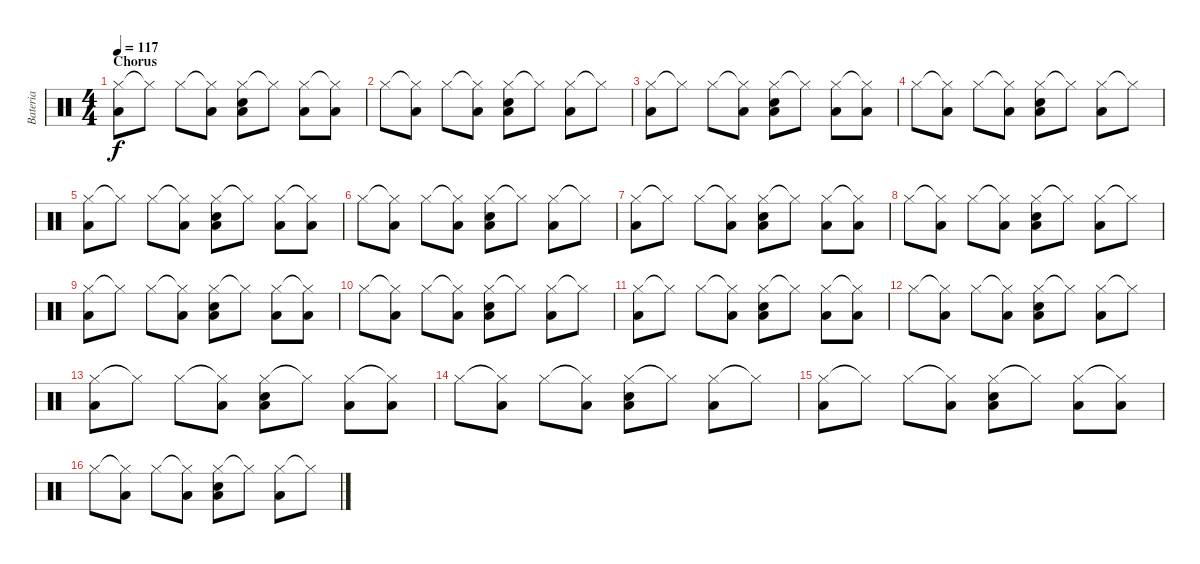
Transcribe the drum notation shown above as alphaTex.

\track ("Bateria" "Bateria") {instrument percussion}
\staff {score}
\articulation defaults
\ts (4 4)
\section ("" "Chorus")
\tempo 117
\clef neutral
\ks c
("Hi-Hat (closed)" "Low Tom (hit)").8{dy f} "Hi-Hat (closed)"{t}.8 "Hi-Hat (closed)".8 ("Hi-Hat (closed)"{t} "Low Tom (hit)").8 ("Hi-Hat (closed)" "Snare (hit) 2" "Low Tom (hit)").8 "Hi-Hat (closed)"{t}.8 ("Hi-Hat (closed)" "Low Tom (hit)").8 ("Hi-Hat (closed)"{t} "Low Tom (hit)").8 |
"Hi-Hat (closed)".8 ("Hi-Hat (closed)"{t} "Low Tom (hit)").8 "Hi-Hat (closed)".8 ("Hi-Hat (closed)"{t} "Low Tom (hit)").8 ("Hi-Hat (closed)" "Snare (hit) 2" "Low Tom (hit)").8 "Hi-Hat (closed)"{t}.8 ("Hi-Hat (closed)" "Low Tom (hit)").8 "Hi-Hat (closed)"{t}.8 |
("Hi-Hat (closed)" "Low Tom (hit)").8 "Hi-Hat (closed)"{t}.8 "Hi-Hat (closed)".8 ("Hi-Hat (closed)"{t} "Low Tom (hit)").8 ("Hi-Hat (closed)" "Snare (hit) 2" "Low Tom (hit)").8 "Hi-Hat (closed)"{t}.8 ("Hi-Hat (closed)" "Low Tom (hit)").8 ("Hi-Hat (closed)"{t} "Low Tom (hit)").8 |
"Hi-Hat (closed)".8 ("Hi-Hat (closed)"{t} "Low Tom (hit)").8 "Hi-Hat (closed)".8 ("Hi-Hat (closed)"{t} "Low Tom (hit)").8 ("Hi-Hat (closed)" "Snare (hit) 2" "Low Tom (hit)").8 "Hi-Hat (closed)"{t}.8 ("Hi-Hat (closed)" "Low Tom (hit)").8 "Hi-Hat (closed)"{t}.8 |
("Hi-Hat (closed)" "Low Tom (hit)").8 "Hi-Hat (closed)"{t}.8 "Hi-Hat (closed)".8 ("Hi-Hat (closed)"{t} "Low Tom (hit)").8 ("Hi-Hat (closed)" "Snare (hit) 2" "Low Tom (hit)").8 "Hi-Hat (closed)"{t}.8 ("Hi-Hat (closed)" "Low Tom (hit)").8 ("Hi-Hat (closed)"{t} "Low Tom (hit)").8 |
"Hi-Hat (closed)".8 ("Hi-Hat (closed)"{t} "Low Tom (hit)").8 "Hi-Hat (closed)".8 ("Hi-Hat (closed)"{t} "Low Tom (hit)").8 ("Hi-Hat (closed)" "Snare (hit) 2" "Low Tom (hit)").8 "Hi-Hat (closed)"{t}.8 ("Hi-Hat (closed)" "Low Tom (hit)").8 "Hi-Hat (closed)"{t}.8 |
("Hi-Hat (closed)" "Low Tom (hit)").8 "Hi-Hat (closed)"{t}.8 "Hi-Hat (closed)".8 ("Hi-Hat (closed)"{t} "Low Tom (hit)").8 ("Hi-Hat (closed)" "Snare (hit) 2" "Low Tom (hit)").8 "Hi-Hat (closed)"{t}.8 ("Hi-Hat (closed)" "Low Tom (hit)").8 ("Hi-Hat (closed)"{t} "Low Tom (hit)").8 |
"Hi-Hat (closed)".8 ("Hi-Hat (closed)"{t} "Low Tom (hit)").8 "Hi-Hat (closed)".8 ("Hi-Hat (closed)"{t} "Low Tom (hit)").8 ("Hi-Hat (closed)" "Snare (hit) 2" "Low Tom (hit)").8 "Hi-Hat (closed)"{t}.8 ("Hi-Hat (closed)" "Low Tom (hit)").8 "Hi-Hat (closed)"{t}.8 |
("Hi-Hat (closed)" "Low Tom (hit)").8 "Hi-Hat (closed)"{t}.8 "Hi-Hat (closed)".8 ("Hi-Hat (closed)"{t} "Low Tom (hit)").8 ("Hi-Hat (closed)" "Snare (hit) 2" "Low Tom (hit)").8 "Hi-Hat (closed)"{t}.8 ("Hi-Hat (closed)" "Low Tom (hit)").8 ("Hi-Hat (closed)"{t} "Low Tom (hit)").8 |
"Hi-Hat (closed)".8 ("Hi-Hat (closed)"{t} "Low Tom (hit)").8 "Hi-Hat (closed)".8 ("Hi-Hat (closed)"{t} "Low Tom (hit)").8 ("Hi-Hat (closed)" "Snare (hit) 2" "Low Tom (hit)").8 "Hi-Hat (closed)"{t}.8 ("Hi-Hat (closed)" "Low Tom (hit)").8 "Hi-Hat (closed)"{t}.8 |
("Hi-Hat (closed)" "Low Tom (hit)").8 "Hi-Hat (closed)"{t}.8 "Hi-Hat (closed)".8 ("Hi-Hat (closed)"{t} "Low Tom (hit)").8 ("Hi-Hat (closed)" "Snare (hit) 2" "Low Tom (hit)").8 "Hi-Hat (closed)"{t}.8 ("Hi-Hat (closed)" "Low Tom (hit)").8 ("Hi-Hat (closed)"{t} "Low Tom (hit)").8 |
"Hi-Hat (closed)".8 ("Hi-Hat (closed)"{t} "Low Tom (hit)").8 "Hi-Hat (closed)".8 ("Hi-Hat (closed)"{t} "Low Tom (hit)").8 ("Hi-Hat (closed)" "Snare (hit) 2" "Low Tom (hit)").8 "Hi-Hat (closed)"{t}.8 ("Hi-Hat (closed)" "Low Tom (hit)").8 "Hi-Hat (closed)"{t}.8 |
("Hi-Hat (closed)" "Low Tom (hit)").8 "Hi-Hat (closed)"{t}.8 "Hi-Hat (closed)".8 ("Hi-Hat (closed)"{t} "Low Tom (hit)").8 ("Hi-Hat (closed)" "Snare (hit) 2" "Low Tom (hit)").8 "Hi-Hat (closed)"{t}.8 ("Hi-Hat (closed)" "Low Tom (hit)").8 ("Hi-Hat (closed)"{t} "Low Tom (hit)").8 |
"Hi-Hat (closed)".8 ("Hi-Hat (closed)"{t} "Low Tom (hit)").8 "Hi-Hat (closed)".8 ("Hi-Hat (closed)"{t} "Low Tom (hit)").8 ("Hi-Hat (closed)" "Snare (hit) 2" "Low Tom (hit)").8 "Hi-Hat (closed)"{t}.8 ("Hi-Hat (closed)" "Low Tom (hit)").8 "Hi-Hat (closed)"{t}.8 |
("Hi-Hat (closed)" "Low Tom (hit)").8 "Hi-Hat (closed)"{t}.8 "Hi-Hat (closed)".8 ("Hi-Hat (closed)"{t} "Low Tom (hit)").8 ("Hi-Hat (closed)" "Snare (hit) 2" "Low Tom (hit)").8 "Hi-Hat (closed)"{t}.8 ("Hi-Hat (closed)" "Low Tom (hit)").8 ("Hi-Hat (closed)"{t} "Low Tom (hit)").8 |
"Hi-Hat (closed)".8 ("Hi-Hat (closed)"{t} "Low Tom (hit)").8 "Hi-Hat (closed)".8 ("Hi-Hat (closed)"{t} "Low Tom (hit)").8 ("Hi-Hat (closed)" "Snare (hit) 2" "Low Tom (hit)").8 "Hi-Hat (closed)"{t}.8 ("Hi-Hat (closed)" "Low Tom (hit)").8 "Hi-Hat (closed)"{t}.8
